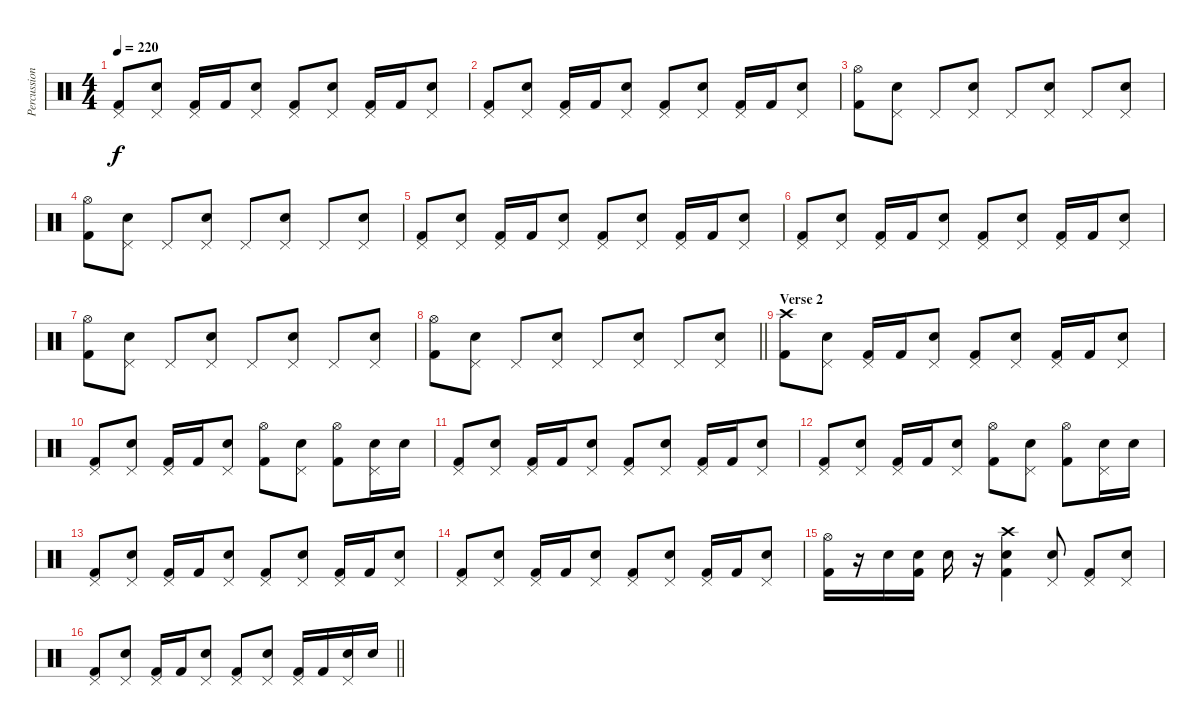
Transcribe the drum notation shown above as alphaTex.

\track ("Percussion" "Percussion") {instrument percussion}
\staff {score}
\articulation defaults
\ts (4 4)
\tempo 220
\clef neutral
\ks c
("Pedal Hi-Hat (hit)" "Kick (hit) 2").8{dy f} ("Pedal Hi-Hat (hit)" "Snare (hit) 2").8 ("Pedal Hi-Hat (hit)" "Kick (hit) 2").16 "Kick (hit) 2".16 ("Pedal Hi-Hat (hit)" "Snare (hit) 2").8 ("Pedal Hi-Hat (hit)" "Kick (hit) 2").8 ("Pedal Hi-Hat (hit)" "Snare (hit) 2").8 ("Pedal Hi-Hat (hit)" "Kick (hit) 2").16 "Kick (hit) 2".16 ("Pedal Hi-Hat (hit)" "Snare (hit) 2").8 |
("Pedal Hi-Hat (hit)" "Kick (hit) 2").8 ("Pedal Hi-Hat (hit)" "Snare (hit) 2").8 ("Pedal Hi-Hat (hit)" "Kick (hit) 2").16 "Kick (hit) 2".16 ("Pedal Hi-Hat (hit)" "Snare (hit) 2").8 ("Pedal Hi-Hat (hit)" "Kick (hit) 2").8 ("Pedal Hi-Hat (hit)" "Snare (hit) 2").8 ("Pedal Hi-Hat (hit)" "Kick (hit) 2").16 "Kick (hit) 2".16 ("Pedal Hi-Hat (hit)" "Snare (hit) 2").8 |
("Hi-Hat (open)" "Kick (hit) 2").8 ("Pedal Hi-Hat (hit)" "Snare (hit) 2").8 "Pedal Hi-Hat (hit)".8 ("Pedal Hi-Hat (hit)" "Snare (hit) 2").8 "Pedal Hi-Hat (hit)".8 ("Pedal Hi-Hat (hit)" "Snare (hit) 2").8 "Pedal Hi-Hat (hit)".8 ("Pedal Hi-Hat (hit)" "Snare (hit) 2").8 |
("Hi-Hat (open)" "Kick (hit) 2").8 ("Pedal Hi-Hat (hit)" "Snare (hit) 2").8 "Pedal Hi-Hat (hit)".8 ("Pedal Hi-Hat (hit)" "Snare (hit) 2").8 "Pedal Hi-Hat (hit)".8 ("Pedal Hi-Hat (hit)" "Snare (hit) 2").8 "Pedal Hi-Hat (hit)".8 ("Pedal Hi-Hat (hit)" "Snare (hit) 2").8 |
("Pedal Hi-Hat (hit)" "Kick (hit) 2").8 ("Pedal Hi-Hat (hit)" "Snare (hit) 2").8 ("Pedal Hi-Hat (hit)" "Kick (hit) 2").16 "Kick (hit) 2".16 ("Pedal Hi-Hat (hit)" "Snare (hit) 2").8 ("Pedal Hi-Hat (hit)" "Kick (hit) 2").8 ("Pedal Hi-Hat (hit)" "Snare (hit) 2").8 ("Pedal Hi-Hat (hit)" "Kick (hit) 2").16 "Kick (hit) 2".16 ("Pedal Hi-Hat (hit)" "Snare (hit) 2").8 |
("Pedal Hi-Hat (hit)" "Kick (hit) 2").8 ("Pedal Hi-Hat (hit)" "Snare (hit) 2").8 ("Pedal Hi-Hat (hit)" "Kick (hit) 2").16 "Kick (hit) 2".16 ("Pedal Hi-Hat (hit)" "Snare (hit) 2").8 ("Pedal Hi-Hat (hit)" "Kick (hit) 2").8 ("Pedal Hi-Hat (hit)" "Snare (hit) 2").8 ("Pedal Hi-Hat (hit)" "Kick (hit) 2").16 "Kick (hit) 2".16 ("Pedal Hi-Hat (hit)" "Snare (hit) 2").8 |
("Hi-Hat (open)" "Kick (hit) 2").8 ("Pedal Hi-Hat (hit)" "Snare (hit) 2").8 "Pedal Hi-Hat (hit)".8 ("Pedal Hi-Hat (hit)" "Snare (hit) 2").8 "Pedal Hi-Hat (hit)".8 ("Pedal Hi-Hat (hit)" "Snare (hit) 2").8 "Pedal Hi-Hat (hit)".8 ("Pedal Hi-Hat (hit)" "Snare (hit) 2").8 |
\barLineRight lightlight
("Hi-Hat (open)" "Kick (hit) 2").8 ("Pedal Hi-Hat (hit)" "Snare (hit) 2").8 "Pedal Hi-Hat (hit)".8 ("Pedal Hi-Hat (hit)" "Snare (hit) 2").8 "Pedal Hi-Hat (hit)".8 ("Pedal Hi-Hat (hit)" "Snare (hit) 2").8 "Pedal Hi-Hat (hit)".8 ("Pedal Hi-Hat (hit)" "Snare (hit) 2").8 |
\section ("" "Verse 2")
("Crash high (hit)" "Kick (hit) 2").8 ("Pedal Hi-Hat (hit)" "Snare (hit) 2").8 ("Pedal Hi-Hat (hit)" "Kick (hit) 2").16 "Kick (hit) 2".16 ("Pedal Hi-Hat (hit)" "Snare (hit) 2").8 ("Pedal Hi-Hat (hit)" "Kick (hit) 2").8 ("Pedal Hi-Hat (hit)" "Snare (hit) 2").8 ("Pedal Hi-Hat (hit)" "Kick (hit) 2").16 "Kick (hit) 2".16 ("Pedal Hi-Hat (hit)" "Snare (hit) 2").8 |
("Pedal Hi-Hat (hit)" "Kick (hit) 2").8 ("Pedal Hi-Hat (hit)" "Snare (hit) 2").8 ("Pedal Hi-Hat (hit)" "Kick (hit) 2").16 "Kick (hit) 2".16 ("Pedal Hi-Hat (hit)" "Snare (hit) 2").8 ("Hi-Hat (open)" "Kick (hit) 2").8 ("Pedal Hi-Hat (hit)" "Snare (hit) 2").8 ("Hi-Hat (open)" "Kick (hit) 2").8 ("Pedal Hi-Hat (hit)" "Snare (hit) 2").16 "Snare (hit) 2".16 |
("Pedal Hi-Hat (hit)" "Kick (hit) 2").8 ("Pedal Hi-Hat (hit)" "Snare (hit) 2").8 ("Pedal Hi-Hat (hit)" "Kick (hit) 2").16 "Kick (hit) 2".16 ("Pedal Hi-Hat (hit)" "Snare (hit) 2").8 ("Pedal Hi-Hat (hit)" "Kick (hit) 2").8 ("Pedal Hi-Hat (hit)" "Snare (hit) 2").8 ("Pedal Hi-Hat (hit)" "Kick (hit) 2").16 "Kick (hit) 2".16 ("Pedal Hi-Hat (hit)" "Snare (hit) 2").8 |
("Pedal Hi-Hat (hit)" "Kick (hit) 2").8 ("Pedal Hi-Hat (hit)" "Snare (hit) 2").8 ("Pedal Hi-Hat (hit)" "Kick (hit) 2").16 "Kick (hit) 2".16 ("Pedal Hi-Hat (hit)" "Snare (hit) 2").8 ("Hi-Hat (open)" "Kick (hit) 2").8 ("Pedal Hi-Hat (hit)" "Snare (hit) 2").8 ("Hi-Hat (open)" "Kick (hit) 2").8 ("Pedal Hi-Hat (hit)" "Snare (hit) 2").16 "Snare (hit) 2".16 |
("Pedal Hi-Hat (hit)" "Kick (hit) 2").8 ("Pedal Hi-Hat (hit)" "Snare (hit) 2").8 ("Pedal Hi-Hat (hit)" "Kick (hit) 2").16 "Kick (hit) 2".16 ("Pedal Hi-Hat (hit)" "Snare (hit) 2").8 ("Pedal Hi-Hat (hit)" "Kick (hit) 2").8 ("Pedal Hi-Hat (hit)" "Snare (hit) 2").8 ("Pedal Hi-Hat (hit)" "Kick (hit) 2").16 "Kick (hit) 2".16 ("Pedal Hi-Hat (hit)" "Snare (hit) 2").8 |
("Pedal Hi-Hat (hit)" "Kick (hit) 2").8 ("Pedal Hi-Hat (hit)" "Snare (hit) 2").8 ("Pedal Hi-Hat (hit)" "Kick (hit) 2").16 "Kick (hit) 2".16 ("Pedal Hi-Hat (hit)" "Snare (hit) 2").8 ("Pedal Hi-Hat (hit)" "Kick (hit) 2").8 ("Pedal Hi-Hat (hit)" "Snare (hit) 2").8 ("Pedal Hi-Hat (hit)" "Kick (hit) 2").16 "Kick (hit) 2".16 ("Pedal Hi-Hat (hit)" "Snare (hit) 2").8 |
("Hi-Hat (open)" "Kick (hit) 2").16 r.16 "Snare (hit) 2".16 ("Snare (hit) 2" "Kick (hit) 2").16 "Snare (hit) 2".16 r.16 ("Crash high (hit)" "Snare (hit) 2" "Kick (hit) 2").4 ("Pedal Hi-Hat (hit)" "Snare (hit) 2").8 ("Pedal Hi-Hat (hit)" "Kick (hit) 2").8 ("Pedal Hi-Hat (hit)" "Snare (hit) 2").8 |
\barLineRight lightlight
("Pedal Hi-Hat (hit)" "Kick (hit) 2").8 ("Pedal Hi-Hat (hit)" "Snare (hit) 2").8 ("Pedal Hi-Hat (hit)" "Kick (hit) 2").16 "Kick (hit) 2".16 ("Pedal Hi-Hat (hit)" "Snare (hit) 2").8 ("Pedal Hi-Hat (hit)" "Kick (hit) 2").8 ("Pedal Hi-Hat (hit)" "Snare (hit) 2").8 ("Pedal Hi-Hat (hit)" "Kick (hit) 2").16 "Kick (hit) 2".16 ("Pedal Hi-Hat (hit)" "Snare (hit) 2").16 "Snare (hit) 2".16
